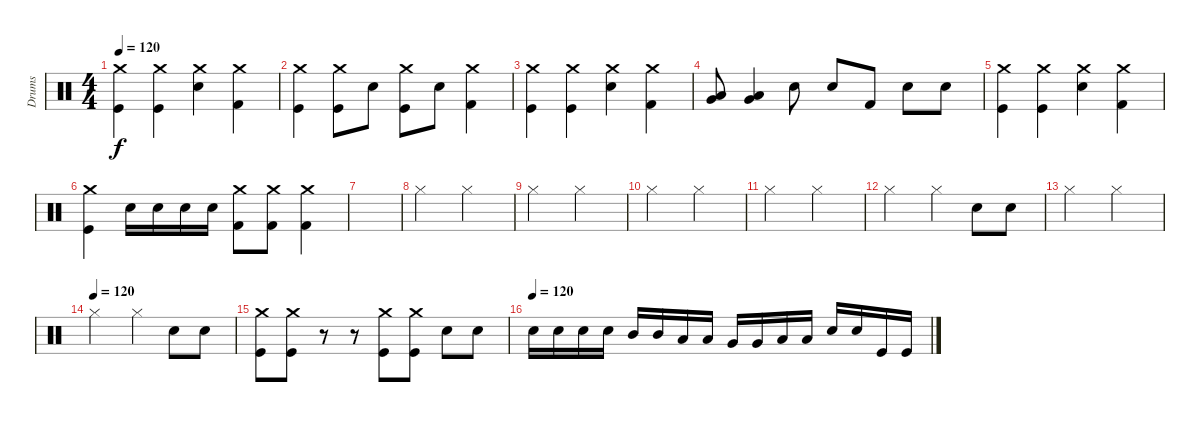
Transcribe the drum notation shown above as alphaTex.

\track ("Drums" "Drums") {instrument percussion}
\staff {score}
\articulation defaults
\ts (4 4)
\tempo 120
\clef neutral
\ks c
("Crash medium (hit)" "Kick (hit)").4{dy f} ("Crash medium (hit)" "Kick (hit)").4 ("Crash medium (hit)" "Electric Snare (hit)").4 ("Crash medium (hit)" "Kick (hit) 2").4 |
("Crash medium (hit)" "Kick (hit)").4 ("Crash medium (hit)" "Kick (hit)").8 "Electric Snare (hit)".8 ("Crash medium (hit)" "Kick (hit)").8 "Electric Snare (hit)".8 ("Crash medium (hit)" "Kick (hit) 2").4 |
("Crash medium (hit)" "Kick (hit)").4 ("Crash medium (hit)" "Kick (hit)").4 ("Crash medium (hit)" "Electric Snare (hit)").4 ("Crash medium (hit)" "Kick (hit) 2").4 |
("Very Low Tom (hit)" "Low Floor Tom (hit)").8 ("Very Low Tom (hit)" "Low Floor Tom (hit)").4 "Electric Snare (hit)".8 "Electric Snare (hit)".8 "Kick (hit) 2".8 "Electric Snare (hit)".8 "Electric Snare (hit)".8 |
("Crash medium (hit)" "Kick (hit)").4 ("Crash medium (hit)" "Kick (hit)").4 ("Crash medium (hit)" "Electric Snare (hit)").4 ("Crash medium (hit)" "Kick (hit) 2").4 |
("Crash medium (hit)" "Kick (hit)").4 "Electric Snare (hit)".16 "Electric Snare (hit)".16 "Electric Snare (hit)".16 "Electric Snare (hit)".16 ("Crash medium (hit)" "Kick (hit) 2").8 ("Crash medium (hit)" "Kick (hit) 2").8 ("Crash medium (hit)" "Kick (hit) 2").4 |
|
"Hi-Hat (closed)".2 "Hi-Hat (closed)".2 |
"Hi-Hat (closed)".2 "Hi-Hat (closed)".2 |
"Hi-Hat (closed)".2 "Hi-Hat (closed)".2 |
"Hi-Hat (closed)".2 "Hi-Hat (closed)".2 |
"Hi-Hat (closed)".2 "Hi-Hat (closed)".4 "Electric Snare (hit)".8 "Electric Snare (hit)".8 |
"Hi-Hat (closed)".2 "Hi-Hat (closed)".2 |
\tempo (120)
"Hi-Hat (closed)".2 "Hi-Hat (closed)".4 "Electric Snare (hit)".8 "Electric Snare (hit)".8 |
("Crash medium (hit)" "Kick (hit)").8 ("Crash medium (hit)" "Kick (hit)").8 r.8 r.8 ("Crash medium (hit)" "Kick (hit)").8 ("Crash medium (hit)" "Kick (hit)").8 "Electric Snare (hit)".8 "Electric Snare (hit)".8 |
\tempo (120)
"Electric Snare (hit)".16 "Electric Snare (hit)".16 "Electric Snare (hit)".16 "Electric Snare (hit)".16 "Mid Tom (hit)".16 "Mid Tom (hit)".16 "Low Tom (hit)".16 "Low Tom (hit)".16 "Very Low Tom (hit)".16 "Very Low Tom (hit)".16 "Low Floor Tom (hit)".16 "Low Floor Tom (hit)".16 "Electric Snare (hit)".16 "Electric Snare (hit)".16 "Kick (hit)".16 "Kick (hit)".16
